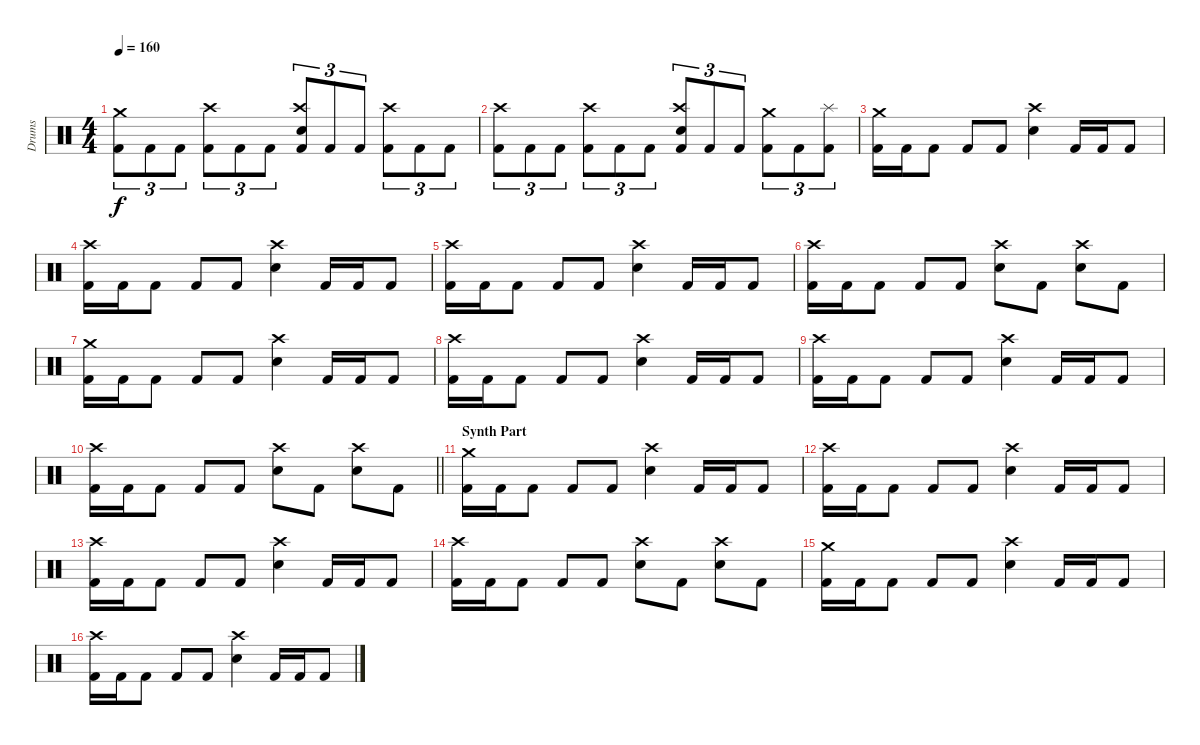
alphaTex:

\track ("Drums" "Drums") {instrument percussion}
\staff {score}
\articulation defaults
\ts (4 4)
\tempo 160
\clef neutral
\ks c
("Crash medium (hit)" "Kick (hit) 2").8{tu (3 2) dy f} "Kick (hit) 2".8{tu (3 2)} "Kick (hit) 2".8{tu (3 2)} ("Crash high (hit)" "Kick (hit) 2").8{tu (3 2)} "Kick (hit) 2".8{tu (3 2)} "Kick (hit) 2".8{tu (3 2)} ("Crash high (hit)" "Electric Snare (hit)" "Kick (hit) 2").8{tu (3 2)} "Kick (hit) 2".8{tu (3 2)} "Kick (hit) 2".8{tu (3 2)} ("Crash high (hit)" "Kick (hit) 2").8{tu (3 2)} "Kick (hit) 2".8{tu (3 2)} "Kick (hit) 2".8{tu (3 2)} |
("Crash high (hit)" "Kick (hit) 2").8{tu (3 2)} "Kick (hit) 2".8{tu (3 2)} "Kick (hit) 2".8{tu (3 2)} ("Crash high (hit)" "Kick (hit) 2").8{tu (3 2)} "Kick (hit) 2".8{tu (3 2)} "Kick (hit) 2".8{tu (3 2)} ("Crash high (hit)" "Electric Snare (hit)" "Kick (hit) 2").8{tu (3 2)} "Kick (hit) 2".8{tu (3 2)} "Kick (hit) 2".8{tu (3 2)} ("Crash medium (hit)" "Kick (hit) 2").8{tu (3 2)} "Kick (hit) 2".8{tu (3 2)} ("Splash (hit)" "Kick (hit) 2").8{tu (3 2)} |
("Crash medium (hit)" "Kick (hit) 2").16 "Kick (hit) 2".16 "Kick (hit) 2".8 "Kick (hit) 2".8 "Kick (hit) 2".8 ("Crash high (hit)" "Electric Snare (hit)").4 "Kick (hit) 2".16 "Kick (hit) 2".16 "Kick (hit) 2".8 |
("Crash high (hit)" "Kick (hit) 2").16 "Kick (hit) 2".16 "Kick (hit) 2".8 "Kick (hit) 2".8 "Kick (hit) 2".8 ("Crash high (hit)" "Electric Snare (hit)").4 "Kick (hit) 2".16 "Kick (hit) 2".16 "Kick (hit) 2".8 |
("Crash high (hit)" "Kick (hit) 2").16 "Kick (hit) 2".16 "Kick (hit) 2".8 "Kick (hit) 2".8 "Kick (hit) 2".8 ("Crash high (hit)" "Electric Snare (hit)").4 "Kick (hit) 2".16 "Kick (hit) 2".16 "Kick (hit) 2".8 |
("Crash high (hit)" "Kick (hit) 2").16 "Kick (hit) 2".16 "Kick (hit) 2".8 "Kick (hit) 2".8 "Kick (hit) 2".8 ("Crash high (hit)" "Electric Snare (hit)").8 "Kick (hit) 2".8 ("Crash high (hit)" "Electric Snare (hit)").8 "Kick (hit) 2".8 |
("Crash medium (hit)" "Kick (hit) 2").16 "Kick (hit) 2".16 "Kick (hit) 2".8 "Kick (hit) 2".8 "Kick (hit) 2".8 ("Crash high (hit)" "Electric Snare (hit)").4 "Kick (hit) 2".16 "Kick (hit) 2".16 "Kick (hit) 2".8 |
("Crash high (hit)" "Kick (hit) 2").16 "Kick (hit) 2".16 "Kick (hit) 2".8 "Kick (hit) 2".8 "Kick (hit) 2".8 ("Crash high (hit)" "Electric Snare (hit)").4 "Kick (hit) 2".16 "Kick (hit) 2".16 "Kick (hit) 2".8 |
("Crash high (hit)" "Kick (hit) 2").16 "Kick (hit) 2".16 "Kick (hit) 2".8 "Kick (hit) 2".8 "Kick (hit) 2".8 ("Crash high (hit)" "Electric Snare (hit)").4 "Kick (hit) 2".16 "Kick (hit) 2".16 "Kick (hit) 2".8 |
\barLineRight lightlight
("Crash high (hit)" "Kick (hit) 2").16 "Kick (hit) 2".16 "Kick (hit) 2".8 "Kick (hit) 2".8 "Kick (hit) 2".8 ("Crash high (hit)" "Electric Snare (hit)").8 "Kick (hit) 2".8 ("Crash high (hit)" "Electric Snare (hit)").8 "Kick (hit) 2".8 |
\section ("" "Synth Part")
("Crash medium (hit)" "Kick (hit) 2").16 "Kick (hit) 2".16 "Kick (hit) 2".8 "Kick (hit) 2".8 "Kick (hit) 2".8 ("Crash high (hit)" "Electric Snare (hit)").4 "Kick (hit) 2".16 "Kick (hit) 2".16 "Kick (hit) 2".8 |
("Crash high (hit)" "Kick (hit) 2").16 "Kick (hit) 2".16 "Kick (hit) 2".8 "Kick (hit) 2".8 "Kick (hit) 2".8 ("Crash high (hit)" "Electric Snare (hit)").4 "Kick (hit) 2".16 "Kick (hit) 2".16 "Kick (hit) 2".8 |
("Crash high (hit)" "Kick (hit) 2").16 "Kick (hit) 2".16 "Kick (hit) 2".8 "Kick (hit) 2".8 "Kick (hit) 2".8 ("Crash high (hit)" "Electric Snare (hit)").4 "Kick (hit) 2".16 "Kick (hit) 2".16 "Kick (hit) 2".8 |
("Crash high (hit)" "Kick (hit) 2").16 "Kick (hit) 2".16 "Kick (hit) 2".8 "Kick (hit) 2".8 "Kick (hit) 2".8 ("Crash high (hit)" "Electric Snare (hit)").8 "Kick (hit) 2".8 ("Crash high (hit)" "Electric Snare (hit)").8 "Kick (hit) 2".8 |
("Crash medium (hit)" "Kick (hit) 2").16 "Kick (hit) 2".16 "Kick (hit) 2".8 "Kick (hit) 2".8 "Kick (hit) 2".8 ("Crash high (hit)" "Electric Snare (hit)").4 "Kick (hit) 2".16 "Kick (hit) 2".16 "Kick (hit) 2".8 |
("Crash high (hit)" "Kick (hit) 2").16 "Kick (hit) 2".16 "Kick (hit) 2".8 "Kick (hit) 2".8 "Kick (hit) 2".8 ("Crash high (hit)" "Electric Snare (hit)").4 "Kick (hit) 2".16 "Kick (hit) 2".16 "Kick (hit) 2".8
